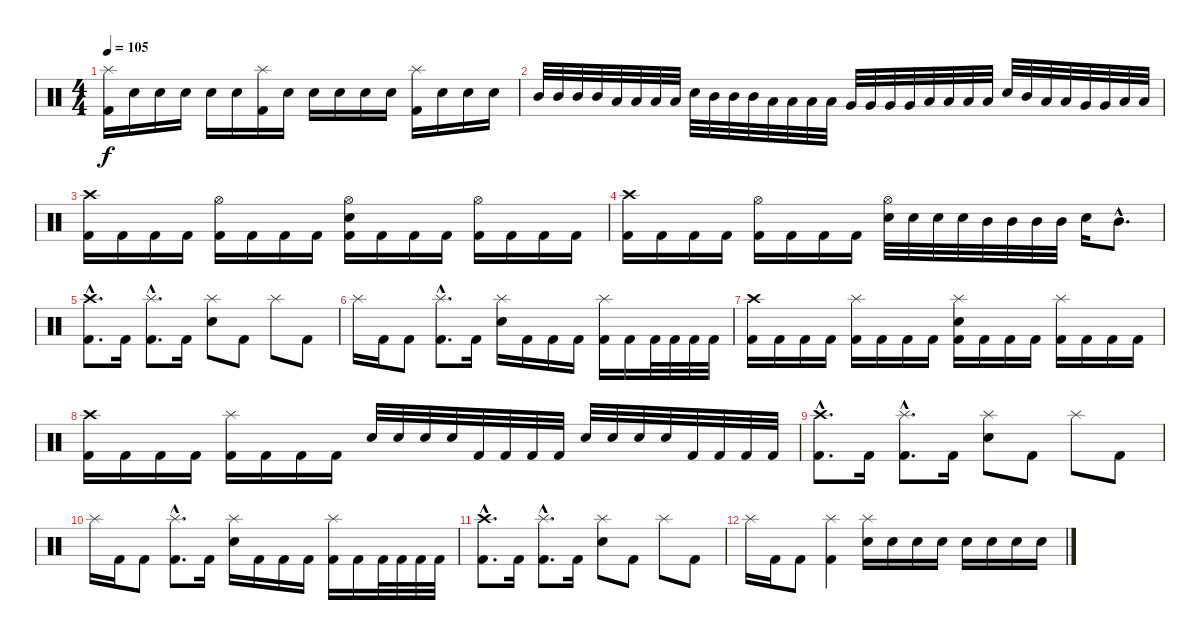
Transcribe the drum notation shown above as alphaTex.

\track "" {instrument percussion}
\staff {score}
\articulation defaults
\ts (4 4)
\tempo 105
\clef neutral
\ks c
("Splash (hit)" "Kick (hit) 2").16{dy f} "Electric Snare (hit)".16 "Electric Snare (hit)".16 "Electric Snare (hit)".16 "Electric Snare (hit)".16 "Electric Snare (hit)".16 ("Splash (hit)" "Kick (hit) 2").16 "Electric Snare (hit)".16 "Electric Snare (hit)".16 "Electric Snare (hit)".16 "Electric Snare (hit)".16 "Electric Snare (hit)".16 ("Splash (hit)" "Kick (hit) 2").16 "Electric Snare (hit)".16 "Electric Snare (hit)".16 "Electric Snare (hit)".16 |
"Mid Tom (hit)".32 "Mid Tom (hit)".32 "Mid Tom (hit)".32 "Mid Tom (hit)".32 "Low Tom (hit)".32 "Low Tom (hit)".32 "Low Tom (hit)".32 "Low Tom (hit)".32 "Electric Snare (hit)".32 "Mid Tom (hit)".32 "Mid Tom (hit)".32 "Mid Tom (hit)".32 "Low Tom (hit)".32 "Low Tom (hit)".32 "Low Tom (hit)".32 "Low Tom (hit)".32 "Very Low Tom (hit)".32 "Very Low Tom (hit)".32 "Very Low Tom (hit)".32 "Very Low Tom (hit)".32 "Low Floor Tom (hit)".32 "Low Floor Tom (hit)".32 "Low Floor Tom (hit)".32 "Low Floor Tom (hit)".32 "Electric Snare (hit)".32 "Mid Tom (hit)".32 "Low Tom (hit)".32 "Low Tom (hit)".32 "Very Low Tom (hit)".32 "Very Low Tom (hit)".32 "Low Floor Tom (hit)".32 "Low Floor Tom (hit)".32 |
("Crash high (hit)" "Kick (hit) 2").16 "Kick (hit) 2".16 "Kick (hit) 2".16 "Kick (hit) 2".16 ("Hi-Hat (open)" "Kick (hit) 2").16 "Kick (hit) 2".16 "Kick (hit) 2".16 "Kick (hit) 2".16 ("Hi-Hat (open)" "Electric Snare (hit)" "Kick (hit) 2").16 "Kick (hit) 2".16 "Kick (hit) 2".16 "Kick (hit) 2".16 ("Hi-Hat (open)" "Kick (hit) 2").16 "Kick (hit) 2".16 "Kick (hit) 2".16 "Kick (hit) 2".16 |
("Crash high (hit)" "Kick (hit) 2").16 "Kick (hit) 2".16 "Kick (hit) 2".16 "Kick (hit) 2".16 ("Hi-Hat (open)" "Kick (hit) 2").16 "Kick (hit) 2".16 "Kick (hit) 2".16 "Kick (hit) 2".16 ("Hi-Hat (open)" "Electric Snare (hit)").32 "Electric Snare (hit)".32 "Electric Snare (hit)".32 "Electric Snare (hit)".32 "Mid Tom (hit)".32 "Mid Tom (hit)".32 "Mid Tom (hit)".32 "Mid Tom (hit)".32 "Electric Snare (hit)".16 "Mid Tom (hit)"{hac}.8{d} |
("Crash high (hit)"{hac} "Kick (hit) 2"{hac}).8{d} "Kick (hit) 2".16 ("Splash (hit)"{hac} "Kick (hit) 2"{hac}).8{d} "Kick (hit) 2".16 ("Splash (hit)" "Electric Snare (hit)").8 "Kick (hit) 2".8 "Splash (hit)".8 "Kick (hit) 2".8 |
"Splash (hit)".16 "Kick (hit) 2".16 "Kick (hit) 2".8 ("Splash (hit)"{hac} "Kick (hit) 2"{hac}).8{d} "Kick (hit) 2".16 ("Splash (hit)" "Electric Snare (hit)").16 "Kick (hit) 2".16 "Kick (hit) 2".16 "Kick (hit) 2".16 ("Splash (hit)" "Kick (hit) 2").16 "Kick (hit) 2".16 "Kick (hit) 2".32 "Kick (hit) 2".32 "Kick (hit) 2".32 "Kick (hit) 2".32 |
("Crash high (hit)" "Kick (hit) 2").16 "Kick (hit) 2".16 "Kick (hit) 2".16 "Kick (hit) 2".16 ("Splash (hit)" "Kick (hit) 2").16 "Kick (hit) 2".16 "Kick (hit) 2".16 "Kick (hit) 2".16 ("Splash (hit)" "Electric Snare (hit)" "Kick (hit) 2").16 "Kick (hit) 2".16 "Kick (hit) 2".16 "Kick (hit) 2".16 ("Splash (hit)" "Kick (hit) 2").16 "Kick (hit) 2".16 "Kick (hit) 2".16 "Kick (hit) 2".16 |
("Crash high (hit)" "Kick (hit) 2").16 "Kick (hit) 2".16 "Kick (hit) 2".16 "Kick (hit) 2".16 ("Splash (hit)" "Kick (hit) 2").16 "Kick (hit) 2".16 "Kick (hit) 2".16 "Kick (hit) 2".16 "Electric Snare (hit)".32 "Electric Snare (hit)".32 "Electric Snare (hit)".32 "Electric Snare (hit)".32 "Kick (hit) 2".32 "Kick (hit) 2".32 "Kick (hit) 2".32 "Kick (hit) 2".32 "Electric Snare (hit)".32 "Electric Snare (hit)".32 "Electric Snare (hit)".32 "Electric Snare (hit)".32 "Kick (hit) 2".32 "Kick (hit) 2".32 "Kick (hit) 2".32 "Kick (hit) 2".32 |
("Crash high (hit)"{hac} "Kick (hit) 2"{hac}).8{d} "Kick (hit) 2".16 ("Splash (hit)"{hac} "Kick (hit) 2"{hac}).8{d} "Kick (hit) 2".16 ("Splash (hit)" "Electric Snare (hit)").8 "Kick (hit) 2".8 "Splash (hit)".8 "Kick (hit) 2".8 |
"Splash (hit)".16 "Kick (hit) 2".16 "Kick (hit) 2".8 ("Splash (hit)"{hac} "Kick (hit) 2"{hac}).8{d} "Kick (hit) 2".16 ("Splash (hit)" "Electric Snare (hit)").16 "Kick (hit) 2".16 "Kick (hit) 2".16 "Kick (hit) 2".16 ("Splash (hit)" "Kick (hit) 2").16 "Kick (hit) 2".16 "Kick (hit) 2".32 "Kick (hit) 2".32 "Kick (hit) 2".32 "Kick (hit) 2".32 |
("Crash high (hit)"{hac} "Kick (hit) 2"{hac}).8{d} "Kick (hit) 2".16 ("Splash (hit)"{hac} "Kick (hit) 2"{hac}).8{d} "Kick (hit) 2".16 ("Splash (hit)" "Electric Snare (hit)").8 "Kick (hit) 2".8 "Splash (hit)".8 "Kick (hit) 2".8 |
"Splash (hit)".16 "Kick (hit) 2".16 "Kick (hit) 2".8 ("Splash (hit)" "Kick (hit) 2").4 ("Splash (hit)" "Electric Snare (hit)").16 "Electric Snare (hit)".16 "Electric Snare (hit)".16 "Electric Snare (hit)".16 "Electric Snare (hit)".16 "Electric Snare (hit)".16 "Electric Snare (hit)".16 "Electric Snare (hit)".16
